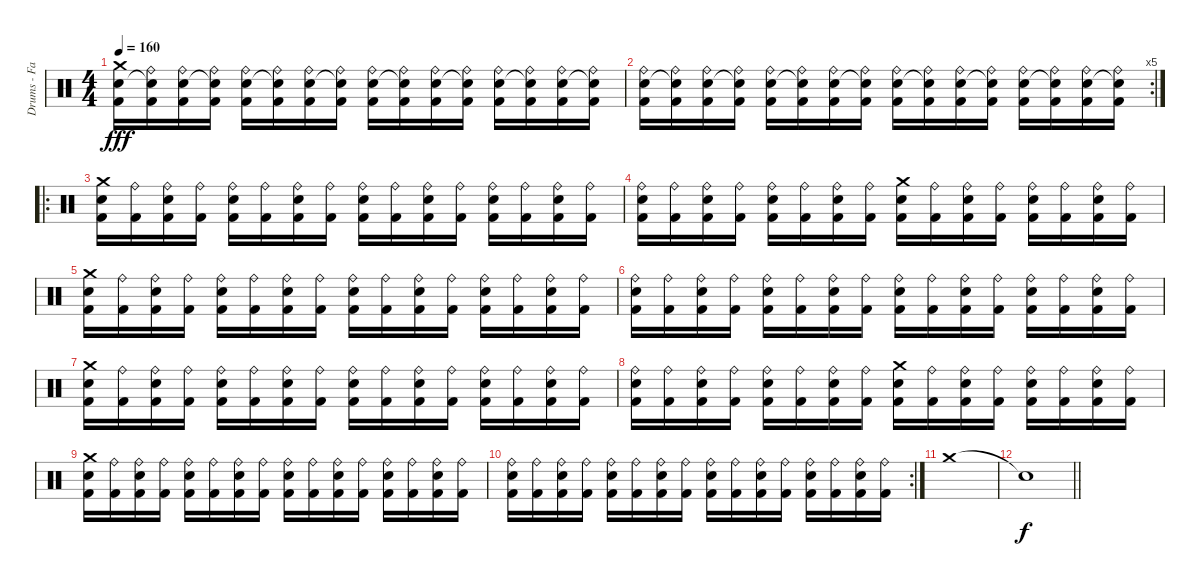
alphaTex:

\track ("Drums - Faust" "Drums - Fa") {instrument percussion}
\staff {score}
\articulation defaults
\ts (4 4)
\tempo 160
\clef neutral
\ks c
("Crash medium (hit)" "Electric Snare (hit)" "Kick (hit) 2").16{dy fff} ("Ride (bell)" "Snare (hit)"{t} "Kick (hit) 2").16 ("Ride (bell)" "Electric Snare (hit)" "Kick (hit) 2").16 ("Ride (bell)" "Snare (hit)"{t} "Kick (hit) 2").16 ("Ride (bell)" "Electric Snare (hit)" "Kick (hit) 2").16 ("Ride (bell)" "Snare (hit)"{t} "Kick (hit) 2").16 ("Ride (bell)" "Electric Snare (hit)" "Kick (hit) 2").16 ("Ride (bell)" "Snare (hit)"{t} "Kick (hit) 2").16 ("Ride (bell)" "Electric Snare (hit)" "Kick (hit) 2").16 ("Ride (bell)" "Snare (hit)"{t} "Kick (hit) 2").16 ("Ride (bell)" "Electric Snare (hit)" "Kick (hit) 2").16 ("Ride (bell)" "Snare (hit)"{t} "Kick (hit) 2").16 ("Ride (bell)" "Electric Snare (hit)" "Kick (hit) 2").16 ("Ride (bell)" "Snare (hit)"{t} "Kick (hit) 2").16 ("Ride (bell)" "Electric Snare (hit)" "Kick (hit) 2").16 ("Ride (bell)" "Snare (hit)"{t} "Kick (hit) 2").16 |
\rc 5
("Ride (bell)" "Electric Snare (hit)" "Kick (hit) 2").16 ("Ride (bell)" "Snare (hit)"{t} "Kick (hit) 2").16 ("Ride (bell)" "Electric Snare (hit)" "Kick (hit) 2").16 ("Ride (bell)" "Snare (hit)"{t} "Kick (hit) 2").16 ("Ride (bell)" "Electric Snare (hit)" "Kick (hit) 2").16 ("Ride (bell)" "Snare (hit)"{t} "Kick (hit) 2").16 ("Ride (bell)" "Electric Snare (hit)" "Kick (hit) 2").16 ("Ride (bell)" "Snare (hit)"{t} "Kick (hit) 2").16 ("Ride (bell)" "Electric Snare (hit)" "Kick (hit) 2").16 ("Ride (bell)" "Snare (hit)"{t} "Kick (hit) 2").16 ("Ride (bell)" "Electric Snare (hit)" "Kick (hit) 2").16 ("Ride (bell)" "Snare (hit)"{t} "Kick (hit) 2").16 ("Ride (bell)" "Electric Snare (hit)" "Kick (hit) 2").16 ("Ride (bell)" "Snare (hit)"{t} "Kick (hit) 2").16 ("Ride (bell)" "Electric Snare (hit)" "Kick (hit) 2").16 ("Ride (bell)" "Snare (hit)"{t} "Kick (hit) 2").16 |
\ro
("Crash medium (hit)" "Electric Snare (hit)" "Kick (hit) 2").16 ("Ride (bell)" "Kick (hit) 2").16 ("Ride (bell)" "Electric Snare (hit)" "Kick (hit) 2").16 ("Ride (bell)" "Kick (hit) 2").16 ("Ride (bell)" "Electric Snare (hit)" "Kick (hit) 2").16 ("Ride (bell)" "Kick (hit) 2").16 ("Ride (bell)" "Electric Snare (hit)" "Kick (hit) 2").16 ("Ride (bell)" "Kick (hit) 2").16 ("Ride (bell)" "Electric Snare (hit)" "Kick (hit) 2").16 ("Ride (bell)" "Kick (hit) 2").16 ("Ride (bell)" "Electric Snare (hit)" "Kick (hit) 2").16 ("Ride (bell)" "Kick (hit) 2").16 ("Ride (bell)" "Electric Snare (hit)" "Kick (hit) 2").16 ("Ride (bell)" "Kick (hit) 2").16 ("Ride (bell)" "Electric Snare (hit)" "Kick (hit) 2").16 ("Ride (bell)" "Kick (hit) 2").16 |
("Ride (bell)" "Electric Snare (hit)" "Kick (hit) 2").16 ("Ride (bell)" "Kick (hit) 2").16 ("Ride (bell)" "Electric Snare (hit)" "Kick (hit) 2").16 ("Ride (bell)" "Kick (hit) 2").16 ("Ride (bell)" "Electric Snare (hit)" "Kick (hit) 2").16 ("Ride (bell)" "Kick (hit) 2").16 ("Ride (bell)" "Electric Snare (hit)" "Kick (hit) 2").16 ("Ride (bell)" "Kick (hit) 2").16 ("Crash medium (hit)" "Electric Snare (hit)" "Kick (hit) 2").16 ("Ride (bell)" "Kick (hit) 2").16 ("Ride (bell)" "Electric Snare (hit)" "Kick (hit) 2").16 ("Ride (bell)" "Kick (hit) 2").16 ("Ride (bell)" "Electric Snare (hit)" "Kick (hit) 2").16 ("Ride (bell)" "Kick (hit) 2").16 ("Ride (bell)" "Electric Snare (hit)" "Kick (hit) 2").16 ("Ride (bell)" "Kick (hit) 2").16 |
("Crash medium (hit)" "Electric Snare (hit)" "Kick (hit) 2").16 ("Ride (bell)" "Kick (hit) 2").16 ("Ride (bell)" "Electric Snare (hit)" "Kick (hit) 2").16 ("Ride (bell)" "Kick (hit) 2").16 ("Ride (bell)" "Electric Snare (hit)" "Kick (hit) 2").16 ("Ride (bell)" "Kick (hit) 2").16 ("Ride (bell)" "Electric Snare (hit)" "Kick (hit) 2").16 ("Ride (bell)" "Kick (hit) 2").16 ("Ride (bell)" "Electric Snare (hit)" "Kick (hit) 2").16 ("Ride (bell)" "Kick (hit) 2").16 ("Ride (bell)" "Electric Snare (hit)" "Kick (hit) 2").16 ("Ride (bell)" "Kick (hit) 2").16 ("Ride (bell)" "Electric Snare (hit)" "Kick (hit) 2").16 ("Ride (bell)" "Kick (hit) 2").16 ("Ride (bell)" "Electric Snare (hit)" "Kick (hit) 2").16 ("Ride (bell)" "Kick (hit) 2").16 |
("Ride (bell)" "Electric Snare (hit)" "Kick (hit) 2").16 ("Ride (bell)" "Kick (hit) 2").16 ("Ride (bell)" "Electric Snare (hit)" "Kick (hit) 2").16 ("Ride (bell)" "Kick (hit) 2").16 ("Ride (bell)" "Electric Snare (hit)" "Kick (hit) 2").16 ("Ride (bell)" "Kick (hit) 2").16 ("Ride (bell)" "Electric Snare (hit)" "Kick (hit) 2").16 ("Ride (bell)" "Kick (hit) 2").16 ("Ride (bell)" "Electric Snare (hit)" "Kick (hit) 2").16 ("Ride (bell)" "Kick (hit) 2").16 ("Ride (bell)" "Electric Snare (hit)" "Kick (hit) 2").16 ("Ride (bell)" "Kick (hit) 2").16 ("Ride (bell)" "Electric Snare (hit)" "Kick (hit) 2").16 ("Ride (bell)" "Kick (hit) 2").16 ("Ride (bell)" "Electric Snare (hit)" "Kick (hit) 2").16 ("Ride (bell)" "Kick (hit) 2").16 |
("Crash medium (hit)" "Electric Snare (hit)" "Kick (hit) 2").16 ("Ride (bell)" "Kick (hit) 2").16 ("Ride (bell)" "Electric Snare (hit)" "Kick (hit) 2").16 ("Ride (bell)" "Kick (hit) 2").16 ("Ride (bell)" "Electric Snare (hit)" "Kick (hit) 2").16 ("Ride (bell)" "Kick (hit) 2").16 ("Ride (bell)" "Electric Snare (hit)" "Kick (hit) 2").16 ("Ride (bell)" "Kick (hit) 2").16 ("Ride (bell)" "Electric Snare (hit)" "Kick (hit) 2").16 ("Ride (bell)" "Kick (hit) 2").16 ("Ride (bell)" "Electric Snare (hit)" "Kick (hit) 2").16 ("Ride (bell)" "Kick (hit) 2").16 ("Ride (bell)" "Electric Snare (hit)" "Kick (hit) 2").16 ("Ride (bell)" "Kick (hit) 2").16 ("Ride (bell)" "Electric Snare (hit)" "Kick (hit) 2").16 ("Ride (bell)" "Kick (hit) 2").16 |
("Ride (bell)" "Electric Snare (hit)" "Kick (hit) 2").16 ("Ride (bell)" "Kick (hit) 2").16 ("Ride (bell)" "Electric Snare (hit)" "Kick (hit) 2").16 ("Ride (bell)" "Kick (hit) 2").16 ("Ride (bell)" "Electric Snare (hit)" "Kick (hit) 2").16 ("Ride (bell)" "Kick (hit) 2").16 ("Ride (bell)" "Electric Snare (hit)" "Kick (hit) 2").16 ("Ride (bell)" "Kick (hit) 2").16 ("Crash medium (hit)" "Electric Snare (hit)" "Kick (hit) 2").16 ("Ride (bell)" "Kick (hit) 2").16 ("Ride (bell)" "Electric Snare (hit)" "Kick (hit) 2").16 ("Ride (bell)" "Kick (hit) 2").16 ("Ride (bell)" "Electric Snare (hit)" "Kick (hit) 2").16 ("Ride (bell)" "Kick (hit) 2").16 ("Ride (bell)" "Electric Snare (hit)" "Kick (hit) 2").16 ("Ride (bell)" "Kick (hit) 2").16 |
("Crash medium (hit)" "Electric Snare (hit)" "Kick (hit) 2").16 ("Ride (bell)" "Kick (hit) 2").16 ("Ride (bell)" "Electric Snare (hit)" "Kick (hit) 2").16 ("Ride (bell)" "Kick (hit) 2").16 ("Ride (bell)" "Electric Snare (hit)" "Kick (hit) 2").16 ("Ride (bell)" "Kick (hit) 2").16 ("Ride (bell)" "Electric Snare (hit)" "Kick (hit) 2").16 ("Ride (bell)" "Kick (hit) 2").16 ("Ride (bell)" "Electric Snare (hit)" "Kick (hit) 2").16 ("Ride (bell)" "Kick (hit) 2").16 ("Ride (bell)" "Electric Snare (hit)" "Kick (hit) 2").16 ("Ride (bell)" "Kick (hit) 2").16 ("Ride (bell)" "Electric Snare (hit)" "Kick (hit) 2").16 ("Ride (bell)" "Kick (hit) 2").16 ("Ride (bell)" "Electric Snare (hit)" "Kick (hit) 2").16 ("Ride (bell)" "Kick (hit) 2").16 |
\rc 2
("Ride (bell)" "Electric Snare (hit)" "Kick (hit) 2").16 ("Ride (bell)" "Kick (hit) 2").16 ("Ride (bell)" "Electric Snare (hit)" "Kick (hit) 2").16 ("Ride (bell)" "Kick (hit) 2").16 ("Ride (bell)" "Electric Snare (hit)" "Kick (hit) 2").16 ("Ride (bell)" "Kick (hit) 2").16 ("Ride (bell)" "Electric Snare (hit)" "Kick (hit) 2").16 ("Ride (bell)" "Kick (hit) 2").16 ("Ride (bell)" "Electric Snare (hit)" "Kick (hit) 2").16 ("Ride (bell)" "Kick (hit) 2").16 ("Ride (bell)" "Electric Snare (hit)" "Kick (hit) 2").16 ("Ride (bell)" "Kick (hit) 2").16 ("Ride (bell)" "Electric Snare (hit)" "Kick (hit) 2").16 ("Ride (bell)" "Kick (hit) 2").16 ("Ride (bell)" "Electric Snare (hit)" "Kick (hit) 2").16 ("Ride (bell)" "Kick (hit) 2").16 |
"Crash medium (hit)".1 |
\barLineRight lightlight "Snare (hit)"{t}.1{dy f}
